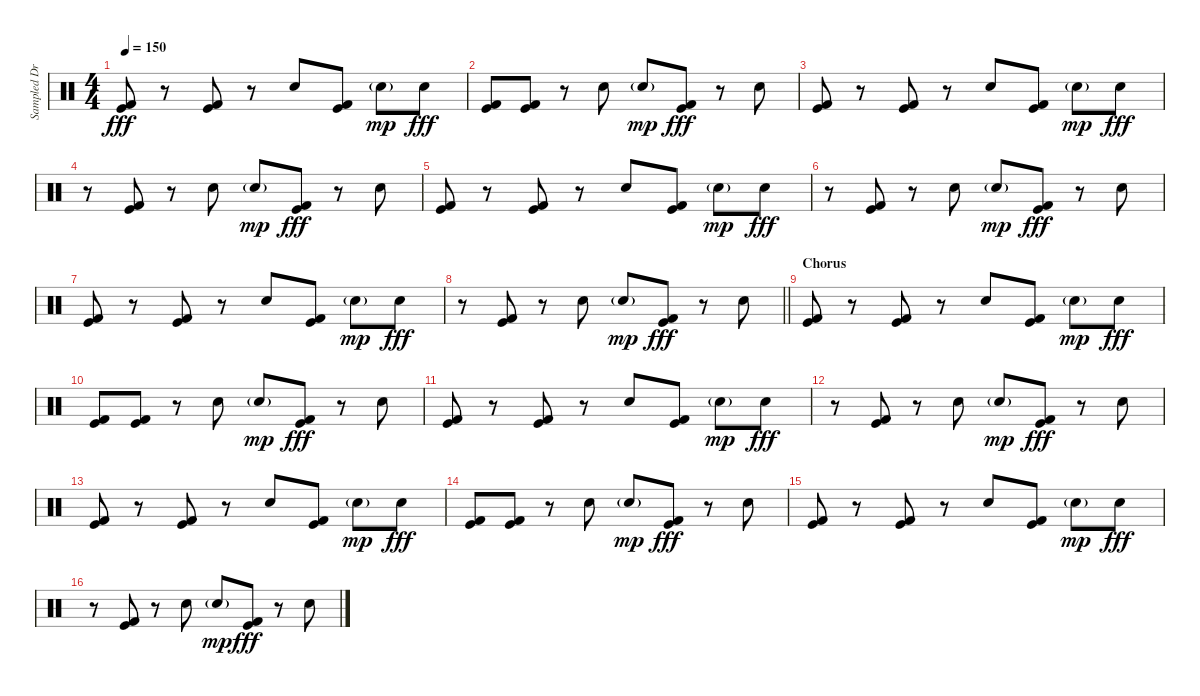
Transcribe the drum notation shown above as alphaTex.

\track ("Sampled Drums" "Sampled Dr") {instrument percussion}
\staff {score}
\articulation defaults
\ts (4 4)
\tempo 150
\clef neutral
\ks c
("Kick (hit)" "Kick (hit) 2").8{dy fff} r.8 ("Kick (hit)" "Kick (hit) 2").8 r.8 "Electric Snare (hit)".8 ("Kick (hit)" "Kick (hit) 2").8 "Electric Snare (hit)"{g}.8{dy mp} "Electric Snare (hit)".8{dy fff} |
("Kick (hit)" "Kick (hit) 2").8 ("Kick (hit)" "Kick (hit) 2").8 r.8 "Electric Snare (hit)".8 "Electric Snare (hit)"{g}.8{dy mp} ("Kick (hit)" "Kick (hit) 2").8{dy fff} r.8 "Electric Snare (hit)".8 |
("Kick (hit)" "Kick (hit) 2").8 r.8 ("Kick (hit)" "Kick (hit) 2").8 r.8 "Electric Snare (hit)".8 ("Kick (hit)" "Kick (hit) 2").8 "Electric Snare (hit)"{g}.8{dy mp} "Electric Snare (hit)".8{dy fff} |
r.8 ("Kick (hit)" "Kick (hit) 2").8 r.8 "Electric Snare (hit)".8 "Electric Snare (hit)"{g}.8{dy mp} ("Kick (hit)" "Kick (hit) 2").8{dy fff} r.8 "Electric Snare (hit)".8 |
("Kick (hit)" "Kick (hit) 2").8 r.8 ("Kick (hit)" "Kick (hit) 2").8 r.8 "Electric Snare (hit)".8 ("Kick (hit)" "Kick (hit) 2").8 "Electric Snare (hit)"{g}.8{dy mp} "Electric Snare (hit)".8{dy fff} |
r.8 ("Kick (hit)" "Kick (hit) 2").8 r.8 "Electric Snare (hit)".8 "Electric Snare (hit)"{g}.8{dy mp} ("Kick (hit)" "Kick (hit) 2").8{dy fff} r.8 "Electric Snare (hit)".8 |
("Kick (hit)" "Kick (hit) 2").8 r.8 ("Kick (hit)" "Kick (hit) 2").8 r.8 "Electric Snare (hit)".8 ("Kick (hit)" "Kick (hit) 2").8 "Electric Snare (hit)"{g}.8{dy mp} "Electric Snare (hit)".8{dy fff} |
\barLineRight lightlight
r.8 ("Kick (hit)" "Kick (hit) 2").8 r.8 "Electric Snare (hit)".8 "Electric Snare (hit)"{g}.8{dy mp} ("Kick (hit)" "Kick (hit) 2").8{dy fff} r.8 "Electric Snare (hit)".8 |
\section ("" "Chorus")
("Kick (hit)" "Kick (hit) 2").8 r.8 ("Kick (hit)" "Kick (hit) 2").8 r.8 "Electric Snare (hit)".8 ("Kick (hit)" "Kick (hit) 2").8 "Electric Snare (hit)"{g}.8{dy mp} "Electric Snare (hit)".8{dy fff} |
("Kick (hit)" "Kick (hit) 2").8 ("Kick (hit)" "Kick (hit) 2").8 r.8 "Electric Snare (hit)".8 "Electric Snare (hit)"{g}.8{dy mp} ("Kick (hit)" "Kick (hit) 2").8{dy fff} r.8 "Electric Snare (hit)".8 |
("Kick (hit)" "Kick (hit) 2").8 r.8 ("Kick (hit)" "Kick (hit) 2").8 r.8 "Electric Snare (hit)".8 ("Kick (hit)" "Kick (hit) 2").8 "Electric Snare (hit)"{g}.8{dy mp} "Electric Snare (hit)".8{dy fff} |
r.8 ("Kick (hit)" "Kick (hit) 2").8 r.8 "Electric Snare (hit)".8 "Electric Snare (hit)"{g}.8{dy mp} ("Kick (hit)" "Kick (hit) 2").8{dy fff} r.8 "Electric Snare (hit)".8 |
("Kick (hit)" "Kick (hit) 2").8 r.8 ("Kick (hit)" "Kick (hit) 2").8 r.8 "Electric Snare (hit)".8 ("Kick (hit)" "Kick (hit) 2").8 "Electric Snare (hit)"{g}.8{dy mp} "Electric Snare (hit)".8{dy fff} |
("Kick (hit)" "Kick (hit) 2").8 ("Kick (hit)" "Kick (hit) 2").8 r.8 "Electric Snare (hit)".8 "Electric Snare (hit)"{g}.8{dy mp} ("Kick (hit)" "Kick (hit) 2").8{dy fff} r.8 "Electric Snare (hit)".8 |
("Kick (hit)" "Kick (hit) 2").8 r.8 ("Kick (hit)" "Kick (hit) 2").8 r.8 "Electric Snare (hit)".8 ("Kick (hit)" "Kick (hit) 2").8 "Electric Snare (hit)"{g}.8{dy mp} "Electric Snare (hit)".8{dy fff} |
r.8 ("Kick (hit)" "Kick (hit) 2").8 r.8 "Electric Snare (hit)".8 "Electric Snare (hit)"{g}.8{dy mp} ("Kick (hit)" "Kick (hit) 2").8{dy fff} r.8 "Electric Snare (hit)".8
